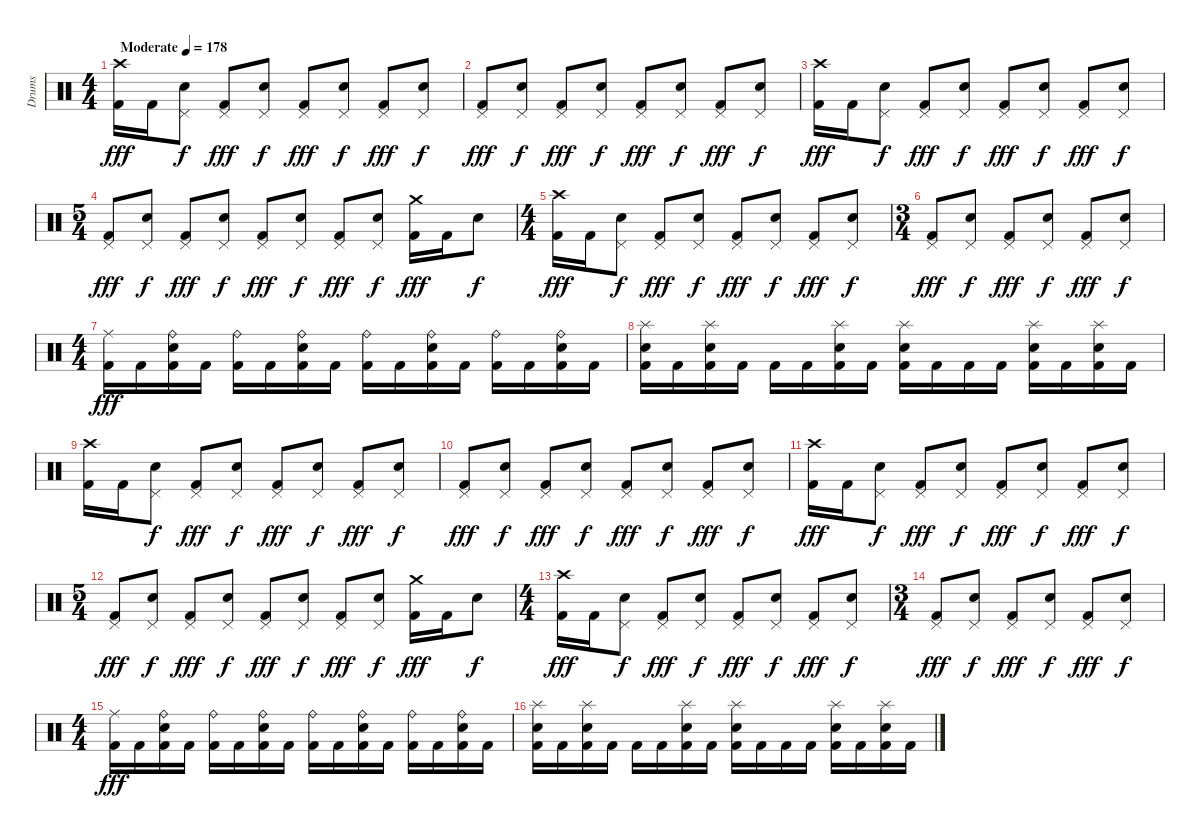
\track ("Drums" "Drums") {instrument percussion}
\staff {score}
\articulation defaults
\ts (4 4)
\tempo (178 "Moderate")
\clef neutral
\ks c
("Crash high (hit)" "Kick (hit) 2").16{dy fff} "Kick (hit) 2".16 ("Pedal Hi-Hat (hit)" "Electric Snare (hit)").8{dy f} ("Pedal Hi-Hat (hit)" "Kick (hit) 2").8{dy fff} ("Pedal Hi-Hat (hit)" "Electric Snare (hit)").8{dy f} ("Pedal Hi-Hat (hit)" "Kick (hit) 2").8{dy fff} ("Pedal Hi-Hat (hit)" "Electric Snare (hit)").8{dy f} ("Pedal Hi-Hat (hit)" "Kick (hit) 2").8{dy fff} ("Pedal Hi-Hat (hit)" "Electric Snare (hit)").8{dy f} |
("Pedal Hi-Hat (hit)" "Kick (hit) 2").8{dy fff} ("Pedal Hi-Hat (hit)" "Electric Snare (hit)").8{dy f} ("Pedal Hi-Hat (hit)" "Kick (hit) 2").8{dy fff} ("Pedal Hi-Hat (hit)" "Electric Snare (hit)").8{dy f} ("Pedal Hi-Hat (hit)" "Kick (hit) 2").8{dy fff} ("Pedal Hi-Hat (hit)" "Electric Snare (hit)").8{dy f} ("Pedal Hi-Hat (hit)" "Kick (hit) 2").8{dy fff} ("Pedal Hi-Hat (hit)" "Electric Snare (hit)").8{dy f} |
("Crash high (hit)" "Kick (hit) 2").16{dy fff} "Kick (hit) 2".16 ("Pedal Hi-Hat (hit)" "Electric Snare (hit)").8{dy f} ("Pedal Hi-Hat (hit)" "Kick (hit) 2").8{dy fff} ("Pedal Hi-Hat (hit)" "Electric Snare (hit)").8{dy f} ("Pedal Hi-Hat (hit)" "Kick (hit) 2").8{dy fff} ("Pedal Hi-Hat (hit)" "Electric Snare (hit)").8{dy f} ("Pedal Hi-Hat (hit)" "Kick (hit) 2").8{dy fff} ("Pedal Hi-Hat (hit)" "Electric Snare (hit)").8{dy f} |
\ts (5 4)
("Pedal Hi-Hat (hit)" "Kick (hit) 2").8{dy fff} ("Pedal Hi-Hat (hit)" "Electric Snare (hit)").8{dy f} ("Pedal Hi-Hat (hit)" "Kick (hit) 2").8{dy fff} ("Pedal Hi-Hat (hit)" "Electric Snare (hit)").8{dy f} ("Pedal Hi-Hat (hit)" "Kick (hit) 2").8{dy fff} ("Pedal Hi-Hat (hit)" "Electric Snare (hit)").8{dy f} ("Pedal Hi-Hat (hit)" "Kick (hit) 2").8{dy fff} ("Pedal Hi-Hat (hit)" "Electric Snare (hit)").8{dy f} ("Crash medium (hit)" "Kick (hit) 2").16{dy fff} "Kick (hit) 2".16 "Electric Snare (hit)".8{dy f} |
\ts (4 4)
("Crash high (hit)" "Kick (hit) 2").16{dy fff} "Kick (hit) 2".16 ("Pedal Hi-Hat (hit)" "Electric Snare (hit)").8{dy f} ("Pedal Hi-Hat (hit)" "Kick (hit) 2").8{dy fff} ("Pedal Hi-Hat (hit)" "Electric Snare (hit)").8{dy f} ("Pedal Hi-Hat (hit)" "Kick (hit) 2").8{dy fff} ("Pedal Hi-Hat (hit)" "Electric Snare (hit)").8{dy f} ("Pedal Hi-Hat (hit)" "Kick (hit) 2").8{dy fff} ("Pedal Hi-Hat (hit)" "Electric Snare (hit)").8{dy f} |
\ts (3 4)
("Pedal Hi-Hat (hit)" "Kick (hit) 2").8{dy fff} ("Pedal Hi-Hat (hit)" "Electric Snare (hit)").8{dy f} ("Pedal Hi-Hat (hit)" "Kick (hit) 2").8{dy fff} ("Pedal Hi-Hat (hit)" "Electric Snare (hit)").8{dy f} ("Pedal Hi-Hat (hit)" "Kick (hit) 2").8{dy fff} ("Pedal Hi-Hat (hit)" "Electric Snare (hit)").8{dy f} |
\ts (4 4)
("Ride (middle)" "Kick (hit) 2").16{dy fff} "Kick (hit) 2".16 ("Ride (bell)" "Electric Snare (hit)" "Kick (hit) 2").16 "Kick (hit) 2".16 ("Ride (bell)" "Kick (hit) 2").16 "Kick (hit) 2".16 ("Ride (bell)" "Electric Snare (hit)" "Kick (hit) 2").16 "Kick (hit) 2".16 ("Ride (bell)" "Kick (hit) 2").16 "Kick (hit) 2".16 ("Ride (bell)" "Electric Snare (hit)" "Kick (hit) 2").16 "Kick (hit) 2".16 ("Ride (bell)" "Kick (hit) 2").16 "Kick (hit) 2".16 ("Ride (bell)" "Electric Snare (hit)" "Kick (hit) 2").16 "Kick (hit) 2".16 |
("Splash (hit)" "Electric Snare (hit)" "Kick (hit) 2").16 "Kick (hit) 2".16 ("Splash (hit)" "Electric Snare (hit)" "Kick (hit) 2").16 "Kick (hit) 2".16 "Kick (hit) 2".16 "Kick (hit) 2".16 ("Splash (hit)" "Electric Snare (hit)" "Kick (hit) 2").16 "Kick (hit) 2".16 ("Splash (hit)" "Electric Snare (hit)" "Kick (hit) 2").16 "Kick (hit) 2".16 "Kick (hit) 2".16 "Kick (hit) 2".16 ("Splash (hit)" "Electric Snare (hit)" "Kick (hit) 2").16 "Kick (hit) 2".16 ("Splash (hit)" "Electric Snare (hit)" "Kick (hit) 2").16 "Kick (hit) 2".16 |
("Crash high (hit)" "Kick (hit) 2").16 "Kick (hit) 2".16 ("Pedal Hi-Hat (hit)" "Electric Snare (hit)").8{dy f} ("Pedal Hi-Hat (hit)" "Kick (hit) 2").8{dy fff} ("Pedal Hi-Hat (hit)" "Electric Snare (hit)").8{dy f} ("Pedal Hi-Hat (hit)" "Kick (hit) 2").8{dy fff} ("Pedal Hi-Hat (hit)" "Electric Snare (hit)").8{dy f} ("Pedal Hi-Hat (hit)" "Kick (hit) 2").8{dy fff} ("Pedal Hi-Hat (hit)" "Electric Snare (hit)").8{dy f} |
("Pedal Hi-Hat (hit)" "Kick (hit) 2").8{dy fff} ("Pedal Hi-Hat (hit)" "Electric Snare (hit)").8{dy f} ("Pedal Hi-Hat (hit)" "Kick (hit) 2").8{dy fff} ("Pedal Hi-Hat (hit)" "Electric Snare (hit)").8{dy f} ("Pedal Hi-Hat (hit)" "Kick (hit) 2").8{dy fff} ("Pedal Hi-Hat (hit)" "Electric Snare (hit)").8{dy f} ("Pedal Hi-Hat (hit)" "Kick (hit) 2").8{dy fff} ("Pedal Hi-Hat (hit)" "Electric Snare (hit)").8{dy f} |
("Crash high (hit)" "Kick (hit) 2").16{dy fff} "Kick (hit) 2".16 ("Pedal Hi-Hat (hit)" "Electric Snare (hit)").8{dy f} ("Pedal Hi-Hat (hit)" "Kick (hit) 2").8{dy fff} ("Pedal Hi-Hat (hit)" "Electric Snare (hit)").8{dy f} ("Pedal Hi-Hat (hit)" "Kick (hit) 2").8{dy fff} ("Pedal Hi-Hat (hit)" "Electric Snare (hit)").8{dy f} ("Pedal Hi-Hat (hit)" "Kick (hit) 2").8{dy fff} ("Pedal Hi-Hat (hit)" "Electric Snare (hit)").8{dy f} |
\ts (5 4)
("Pedal Hi-Hat (hit)" "Kick (hit) 2").8{dy fff} ("Pedal Hi-Hat (hit)" "Electric Snare (hit)").8{dy f} ("Pedal Hi-Hat (hit)" "Kick (hit) 2").8{dy fff} ("Pedal Hi-Hat (hit)" "Electric Snare (hit)").8{dy f} ("Pedal Hi-Hat (hit)" "Kick (hit) 2").8{dy fff} ("Pedal Hi-Hat (hit)" "Electric Snare (hit)").8{dy f} ("Pedal Hi-Hat (hit)" "Kick (hit) 2").8{dy fff} ("Pedal Hi-Hat (hit)" "Electric Snare (hit)").8{dy f} ("Crash medium (hit)" "Kick (hit) 2").16{dy fff} "Kick (hit) 2".16 "Electric Snare (hit)".8{dy f} |
\ts (4 4)
("Crash high (hit)" "Kick (hit) 2").16{dy fff} "Kick (hit) 2".16 ("Pedal Hi-Hat (hit)" "Electric Snare (hit)").8{dy f} ("Pedal Hi-Hat (hit)" "Kick (hit) 2").8{dy fff} ("Pedal Hi-Hat (hit)" "Electric Snare (hit)").8{dy f} ("Pedal Hi-Hat (hit)" "Kick (hit) 2").8{dy fff} ("Pedal Hi-Hat (hit)" "Electric Snare (hit)").8{dy f} ("Pedal Hi-Hat (hit)" "Kick (hit) 2").8{dy fff} ("Pedal Hi-Hat (hit)" "Electric Snare (hit)").8{dy f} |
\ts (3 4)
("Pedal Hi-Hat (hit)" "Kick (hit) 2").8{dy fff} ("Pedal Hi-Hat (hit)" "Electric Snare (hit)").8{dy f} ("Pedal Hi-Hat (hit)" "Kick (hit) 2").8{dy fff} ("Pedal Hi-Hat (hit)" "Electric Snare (hit)").8{dy f} ("Pedal Hi-Hat (hit)" "Kick (hit) 2").8{dy fff} ("Pedal Hi-Hat (hit)" "Electric Snare (hit)").8{dy f} |
\ts (4 4)
("Ride (middle)" "Kick (hit) 2").16{dy fff} "Kick (hit) 2".16 ("Ride (bell)" "Electric Snare (hit)" "Kick (hit) 2").16 "Kick (hit) 2".16 ("Ride (bell)" "Kick (hit) 2").16 "Kick (hit) 2".16 ("Ride (bell)" "Electric Snare (hit)" "Kick (hit) 2").16 "Kick (hit) 2".16 ("Ride (bell)" "Kick (hit) 2").16 "Kick (hit) 2".16 ("Ride (bell)" "Electric Snare (hit)" "Kick (hit) 2").16 "Kick (hit) 2".16 ("Ride (bell)" "Kick (hit) 2").16 "Kick (hit) 2".16 ("Ride (bell)" "Electric Snare (hit)" "Kick (hit) 2").16 "Kick (hit) 2".16 |
("Splash (hit)" "Electric Snare (hit)" "Kick (hit) 2").16 "Kick (hit) 2".16 ("Splash (hit)" "Electric Snare (hit)" "Kick (hit) 2").16 "Kick (hit) 2".16 "Kick (hit) 2".16 "Kick (hit) 2".16 ("Splash (hit)" "Electric Snare (hit)" "Kick (hit) 2").16 "Kick (hit) 2".16 ("Splash (hit)" "Electric Snare (hit)" "Kick (hit) 2").16 "Kick (hit) 2".16 "Kick (hit) 2".16 "Kick (hit) 2".16 ("Splash (hit)" "Electric Snare (hit)" "Kick (hit) 2").16 "Kick (hit) 2".16 ("Splash (hit)" "Electric Snare (hit)" "Kick (hit) 2").16 "Kick (hit) 2".16
